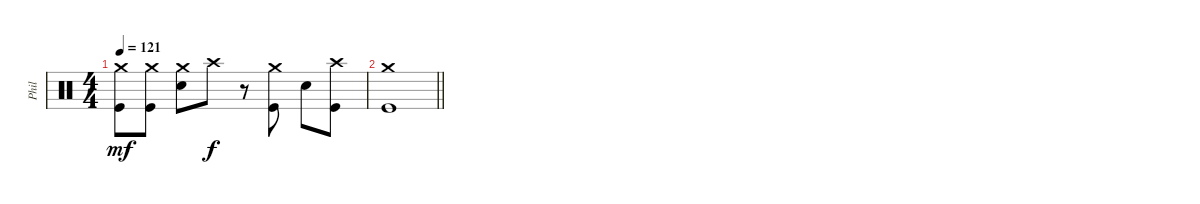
\track ("Phil" "Phil") {instrument percussion}
\staff {score}
\articulation defaults
\ts (4 4)
\tempo 121
\clef neutral
\ks c
("Crash medium (hit)" "Kick (hit)").8{dy mf} ("Crash medium (hit)" "Kick (hit)").8 ("Crash medium (hit)" "Snare (hit) 2").8 "Crash high (hit)".8{dy f} r.8 ("Crash medium (hit)" "Kick (hit)").8 "Snare (hit) 2".8 ("Crash high (hit)" "Kick (hit)").8 |
\barLineRight lightlight
("Crash medium (hit)" "Kick (hit)").1
